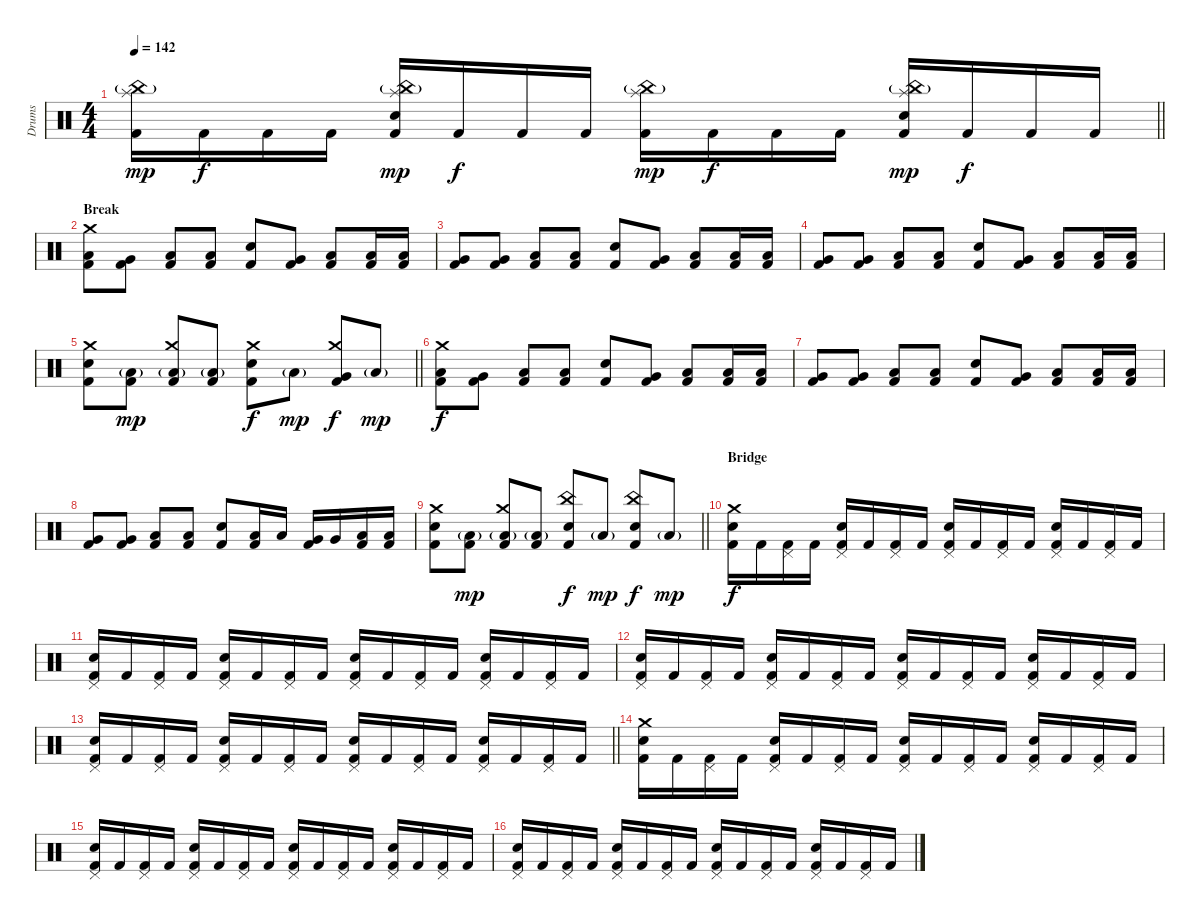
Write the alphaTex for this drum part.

\track ("Drums" "Drums") {instrument percussion}
\staff {score}
\articulation defaults
\ts (4 4)
\tempo 142
\clef neutral
\barLineRight lightlight
\ks c
("Kick (hit) 2" "Splash (hit)" "China (hit)"{g}).16{dy mp} "Kick (hit) 2".16{dy f} "Kick (hit) 2".16 "Kick (hit) 2".16 ("Kick (hit) 2" "Snare (hit) 2" "Splash (hit)" "China (hit)"{g}).16{dy mp} "Kick (hit) 2".16{dy f} "Kick (hit) 2".16 "Kick (hit) 2".16 ("Kick (hit) 2" "Splash (hit)" "China (hit)"{g}).16{dy mp} "Kick (hit) 2".16{dy f} "Kick (hit) 2".16 "Kick (hit) 2".16 ("Kick (hit) 2" "Snare (hit) 2" "Splash (hit)" "China (hit)"{g}).16{dy mp} "Kick (hit) 2".16{dy f} "Kick (hit) 2".16 "Kick (hit) 2".16 |
\section ("" "Break")
("Kick (hit) 2" "Low Tom (hit)" "Crash medium (hit)").8 ("Kick (hit) 2" "Very Low Tom (hit)").8 ("Kick (hit) 2" "Low Floor Tom (hit)").8 ("Kick (hit) 2" "Low Floor Tom (hit)").8 ("Kick (hit) 2" "Snare (hit) 2").8 ("Kick (hit) 2" "Very Low Tom (hit)").8 ("Kick (hit) 2" "Low Floor Tom (hit)").8 ("Kick (hit) 2" "Low Floor Tom (hit)").16 ("Kick (hit) 2" "Low Floor Tom (hit)").16 |
("Kick (hit) 2" "Very Low Tom (hit)").8 ("Kick (hit) 2" "Very Low Tom (hit)").8 ("Kick (hit) 2" "Low Floor Tom (hit)").8 ("Kick (hit) 2" "Low Floor Tom (hit)").8 ("Kick (hit) 2" "Snare (hit) 2").8 ("Kick (hit) 2" "Very Low Tom (hit)").8 ("Kick (hit) 2" "Low Floor Tom (hit)").8 ("Kick (hit) 2" "Low Floor Tom (hit)").16 ("Kick (hit) 2" "Low Floor Tom (hit)").16 |
("Kick (hit) 2" "Very Low Tom (hit)").8 ("Kick (hit) 2" "Very Low Tom (hit)").8 ("Kick (hit) 2" "Low Floor Tom (hit)").8 ("Kick (hit) 2" "Low Floor Tom (hit)").8 ("Kick (hit) 2" "Snare (hit) 2").8 ("Kick (hit) 2" "Very Low Tom (hit)").8 ("Kick (hit) 2" "Low Floor Tom (hit)").8 ("Kick (hit) 2" "Low Floor Tom (hit)").16 ("Kick (hit) 2" "Low Floor Tom (hit)").16 |
\barLineRight lightlight
("Kick (hit) 2" "Snare (hit) 2" "Crash medium (hit)").8 ("Kick (hit) 2" "Low Floor Tom (hit)"{g}).8{dy mp} ("Kick (hit) 2" "Low Floor Tom (hit)"{g} "Crash medium (hit)").8 ("Kick (hit) 2" "Low Floor Tom (hit)"{g}).8 ("Kick (hit) 2" "Snare (hit) 2" "Crash medium (hit)").8{dy f} "Low Floor Tom (hit)"{g}.8{dy mp} ("Kick (hit) 2" "Very Low Tom (hit)" "Crash medium (hit)").8{dy f} "Low Floor Tom (hit)"{g}.8{dy mp} |
\section ("" "")
("Kick (hit) 2" "Low Tom (hit)" "Crash medium (hit)").8{dy f} ("Kick (hit) 2" "Very Low Tom (hit)").8 ("Kick (hit) 2" "Low Floor Tom (hit)").8 ("Kick (hit) 2" "Low Floor Tom (hit)").8 ("Kick (hit) 2" "Snare (hit) 2").8 ("Kick (hit) 2" "Very Low Tom (hit)").8 ("Kick (hit) 2" "Low Floor Tom (hit)").8 ("Kick (hit) 2" "Low Floor Tom (hit)").16 ("Kick (hit) 2" "Low Floor Tom (hit)").16 |
("Kick (hit) 2" "Very Low Tom (hit)").8 ("Kick (hit) 2" "Very Low Tom (hit)").8 ("Kick (hit) 2" "Low Floor Tom (hit)").8 ("Kick (hit) 2" "Low Floor Tom (hit)").8 ("Kick (hit) 2" "Snare (hit) 2").8 ("Kick (hit) 2" "Very Low Tom (hit)").8 ("Kick (hit) 2" "Low Floor Tom (hit)").8 ("Kick (hit) 2" "Low Floor Tom (hit)").16 ("Kick (hit) 2" "Low Floor Tom (hit)").16 |
("Kick (hit) 2" "Very Low Tom (hit)").8 ("Kick (hit) 2" "Very Low Tom (hit)").8 ("Kick (hit) 2" "Low Floor Tom (hit)").8 ("Kick (hit) 2" "Low Floor Tom (hit)").8 ("Kick (hit) 2" "Snare (hit) 2").8 ("Kick (hit) 2" "Low Tom (hit)").16 "Low Tom (hit)".16 ("Kick (hit) 2" "Very Low Tom (hit)").16 "Very Low Tom (hit)".16 ("Kick (hit) 2" "Low Floor Tom (hit)").16 ("Kick (hit) 2" "Low Floor Tom (hit)").16 |
\barLineRight lightlight
("Kick (hit) 2" "Snare (hit) 2" "Crash medium (hit)").8 ("Kick (hit) 2" "Low Floor Tom (hit)"{g}).8{dy mp} ("Kick (hit) 2" "Low Floor Tom (hit)"{g} "Crash medium (hit)").8 ("Kick (hit) 2" "Low Floor Tom (hit)"{g}).8 ("Kick (hit) 2" "Snare (hit) 2" "China (hit)").8{dy f} "Low Floor Tom (hit)"{g}.8{dy mp} ("Kick (hit) 2" "Snare (hit) 2" "China (hit)").8{dy f} "Low Floor Tom (hit)"{g}.8{dy mp} |
\section ("" "Bridge")
("Kick (hit) 2" "Snare (hit) 2" "Crash medium (hit)").16{dy f} "Kick (hit) 2".16 ("Kick (hit) 2" "Pedal Hi-Hat (hit)").16 "Kick (hit) 2".16 ("Kick (hit) 2" "Snare (hit) 2" "Pedal Hi-Hat (hit)").16 "Kick (hit) 2".16 ("Kick (hit) 2" "Pedal Hi-Hat (hit)").16 "Kick (hit) 2".16 ("Kick (hit) 2" "Snare (hit) 2" "Pedal Hi-Hat (hit)").16 "Kick (hit) 2".16 ("Kick (hit) 2" "Pedal Hi-Hat (hit)").16 "Kick (hit) 2".16 ("Kick (hit) 2" "Snare (hit) 2" "Pedal Hi-Hat (hit)").16 "Kick (hit) 2".16 ("Kick (hit) 2" "Pedal Hi-Hat (hit)").16 "Kick (hit) 2".16 |
("Kick (hit) 2" "Snare (hit) 2" "Pedal Hi-Hat (hit)").16 "Kick (hit) 2".16 ("Kick (hit) 2" "Pedal Hi-Hat (hit)").16 "Kick (hit) 2".16 ("Kick (hit) 2" "Snare (hit) 2" "Pedal Hi-Hat (hit)").16 "Kick (hit) 2".16 ("Kick (hit) 2" "Pedal Hi-Hat (hit)").16 "Kick (hit) 2".16 ("Kick (hit) 2" "Snare (hit) 2" "Pedal Hi-Hat (hit)").16 "Kick (hit) 2".16 ("Kick (hit) 2" "Pedal Hi-Hat (hit)").16 "Kick (hit) 2".16 ("Kick (hit) 2" "Snare (hit) 2" "Pedal Hi-Hat (hit)").16 "Kick (hit) 2".16 ("Kick (hit) 2" "Pedal Hi-Hat (hit)").16 "Kick (hit) 2".16 |
("Kick (hit) 2" "Snare (hit) 2" "Pedal Hi-Hat (hit)").16 "Kick (hit) 2".16 ("Kick (hit) 2" "Pedal Hi-Hat (hit)").16 "Kick (hit) 2".16 ("Kick (hit) 2" "Snare (hit) 2" "Pedal Hi-Hat (hit)").16 "Kick (hit) 2".16 ("Kick (hit) 2" "Pedal Hi-Hat (hit)").16 "Kick (hit) 2".16 ("Kick (hit) 2" "Snare (hit) 2" "Pedal Hi-Hat (hit)").16 "Kick (hit) 2".16 ("Kick (hit) 2" "Pedal Hi-Hat (hit)").16 "Kick (hit) 2".16 ("Kick (hit) 2" "Snare (hit) 2" "Pedal Hi-Hat (hit)").16 "Kick (hit) 2".16 ("Kick (hit) 2" "Pedal Hi-Hat (hit)").16 "Kick (hit) 2".16 |
\barLineRight lightlight
("Kick (hit) 2" "Snare (hit) 2" "Pedal Hi-Hat (hit)").16 "Kick (hit) 2".16 ("Kick (hit) 2" "Pedal Hi-Hat (hit)").16 "Kick (hit) 2".16 ("Kick (hit) 2" "Snare (hit) 2" "Pedal Hi-Hat (hit)").16 "Kick (hit) 2".16 ("Kick (hit) 2" "Pedal Hi-Hat (hit)").16 "Kick (hit) 2".16 ("Kick (hit) 2" "Snare (hit) 2" "Pedal Hi-Hat (hit)").16 "Kick (hit) 2".16 ("Kick (hit) 2" "Pedal Hi-Hat (hit)").16 "Kick (hit) 2".16 ("Kick (hit) 2" "Snare (hit) 2" "Pedal Hi-Hat (hit)").16 "Kick (hit) 2".16 ("Kick (hit) 2" "Pedal Hi-Hat (hit)").16 "Kick (hit) 2".16 |
\section ("" "")
("Kick (hit) 2" "Snare (hit) 2" "Crash medium (hit)").16 "Kick (hit) 2".16 ("Kick (hit) 2" "Pedal Hi-Hat (hit)").16 "Kick (hit) 2".16 ("Kick (hit) 2" "Snare (hit) 2" "Pedal Hi-Hat (hit)").16 "Kick (hit) 2".16 ("Kick (hit) 2" "Pedal Hi-Hat (hit)").16 "Kick (hit) 2".16 ("Kick (hit) 2" "Snare (hit) 2" "Pedal Hi-Hat (hit)").16 "Kick (hit) 2".16 ("Kick (hit) 2" "Pedal Hi-Hat (hit)").16 "Kick (hit) 2".16 ("Kick (hit) 2" "Snare (hit) 2" "Pedal Hi-Hat (hit)").16 "Kick (hit) 2".16 ("Kick (hit) 2" "Pedal Hi-Hat (hit)").16 "Kick (hit) 2".16 |
("Kick (hit) 2" "Snare (hit) 2" "Pedal Hi-Hat (hit)").16 "Kick (hit) 2".16 ("Kick (hit) 2" "Pedal Hi-Hat (hit)").16 "Kick (hit) 2".16 ("Kick (hit) 2" "Snare (hit) 2" "Pedal Hi-Hat (hit)").16 "Kick (hit) 2".16 ("Kick (hit) 2" "Pedal Hi-Hat (hit)").16 "Kick (hit) 2".16 ("Kick (hit) 2" "Snare (hit) 2" "Pedal Hi-Hat (hit)").16 "Kick (hit) 2".16 ("Kick (hit) 2" "Pedal Hi-Hat (hit)").16 "Kick (hit) 2".16 ("Kick (hit) 2" "Snare (hit) 2" "Pedal Hi-Hat (hit)").16 "Kick (hit) 2".16 ("Kick (hit) 2" "Pedal Hi-Hat (hit)").16 "Kick (hit) 2".16 |
("Kick (hit) 2" "Snare (hit) 2" "Pedal Hi-Hat (hit)").16 "Kick (hit) 2".16 ("Kick (hit) 2" "Pedal Hi-Hat (hit)").16 "Kick (hit) 2".16 ("Kick (hit) 2" "Snare (hit) 2" "Pedal Hi-Hat (hit)").16 "Kick (hit) 2".16 ("Kick (hit) 2" "Pedal Hi-Hat (hit)").16 "Kick (hit) 2".16 ("Kick (hit) 2" "Snare (hit) 2" "Pedal Hi-Hat (hit)").16 "Kick (hit) 2".16 ("Kick (hit) 2" "Pedal Hi-Hat (hit)").16 "Kick (hit) 2".16 ("Kick (hit) 2" "Snare (hit) 2" "Pedal Hi-Hat (hit)").16 "Kick (hit) 2".16 ("Kick (hit) 2" "Pedal Hi-Hat (hit)").16 "Kick (hit) 2".16
